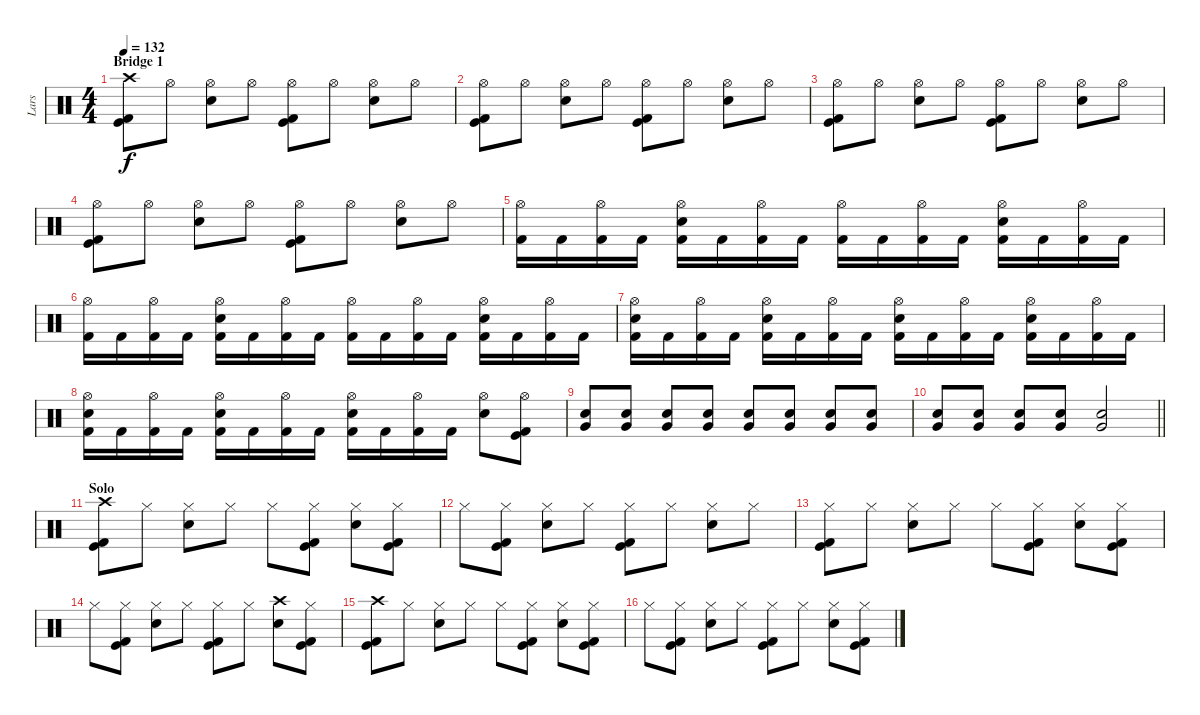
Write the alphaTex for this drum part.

\track ("Lars" "Lars") {instrument percussion}
\staff {score}
\articulation defaults
\ts (4 4)
\section ("" "Bridge 1")
\tempo 132
\clef neutral
\ks c
("Crash high (hit)" "Kick (hit)" "Kick (hit) 2").8{dy f} "Hi-Hat (open)".8 ("Hi-Hat (open)" "Electric Snare (hit)").8 "Hi-Hat (open)".8 ("Hi-Hat (open)" "Kick (hit)" "Kick (hit) 2").8 "Hi-Hat (open)".8 ("Hi-Hat (open)" "Electric Snare (hit)").8 "Hi-Hat (open)".8 |
("Hi-Hat (open)" "Kick (hit)" "Kick (hit) 2").8 "Hi-Hat (open)".8 ("Hi-Hat (open)" "Electric Snare (hit)").8 "Hi-Hat (open)".8 ("Hi-Hat (open)" "Kick (hit)" "Kick (hit) 2").8 "Hi-Hat (open)".8 ("Hi-Hat (open)" "Electric Snare (hit)").8 "Hi-Hat (open)".8 |
("Hi-Hat (open)" "Kick (hit)" "Kick (hit) 2").8 "Hi-Hat (open)".8 ("Hi-Hat (open)" "Electric Snare (hit)").8 "Hi-Hat (open)".8 ("Hi-Hat (open)" "Kick (hit)" "Kick (hit) 2").8 "Hi-Hat (open)".8 ("Hi-Hat (open)" "Electric Snare (hit)").8 "Hi-Hat (open)".8 |
("Hi-Hat (open)" "Kick (hit)" "Kick (hit) 2").8 "Hi-Hat (open)".8 ("Hi-Hat (open)" "Electric Snare (hit)").8 "Hi-Hat (open)".8 ("Hi-Hat (open)" "Kick (hit)" "Kick (hit) 2").8 "Hi-Hat (open)".8 ("Hi-Hat (open)" "Electric Snare (hit)").8 "Hi-Hat (open)".8 |
("Hi-Hat (open)" "Kick (hit) 2").16 "Kick (hit) 2".16 ("Hi-Hat (open)" "Kick (hit) 2").16 "Kick (hit) 2".16 ("Hi-Hat (open)" "Electric Snare (hit)" "Kick (hit) 2").16 "Kick (hit) 2".16 ("Hi-Hat (open)" "Kick (hit) 2").16 "Kick (hit) 2".16 ("Hi-Hat (open)" "Kick (hit) 2").16 "Kick (hit) 2".16 ("Hi-Hat (open)" "Kick (hit) 2").16 "Kick (hit) 2".16 ("Hi-Hat (open)" "Electric Snare (hit)" "Kick (hit) 2").16 "Kick (hit) 2".16 ("Hi-Hat (open)" "Kick (hit) 2").16 "Kick (hit) 2".16 |
("Hi-Hat (open)" "Kick (hit) 2").16 "Kick (hit) 2".16 ("Hi-Hat (open)" "Kick (hit) 2").16 "Kick (hit) 2".16 ("Hi-Hat (open)" "Electric Snare (hit)" "Kick (hit) 2").16 "Kick (hit) 2".16 ("Hi-Hat (open)" "Kick (hit) 2").16 "Kick (hit) 2".16 ("Hi-Hat (open)" "Kick (hit) 2").16 "Kick (hit) 2".16 ("Hi-Hat (open)" "Kick (hit) 2").16 "Kick (hit) 2".16 ("Hi-Hat (open)" "Electric Snare (hit)" "Kick (hit) 2").16 "Kick (hit) 2".16 ("Hi-Hat (open)" "Kick (hit) 2").16 "Kick (hit) 2".16 |
("Hi-Hat (open)" "Electric Snare (hit)" "Kick (hit) 2").16 "Kick (hit) 2".16 ("Hi-Hat (open)" "Kick (hit) 2").16 "Kick (hit) 2".16 ("Hi-Hat (open)" "Electric Snare (hit)" "Kick (hit) 2").16 "Kick (hit) 2".16 ("Hi-Hat (open)" "Kick (hit) 2").16 "Kick (hit) 2".16 ("Hi-Hat (open)" "Electric Snare (hit)" "Kick (hit) 2").16 "Kick (hit) 2".16 ("Hi-Hat (open)" "Kick (hit) 2").16 "Kick (hit) 2".16 ("Hi-Hat (open)" "Electric Snare (hit)" "Kick (hit) 2").16 "Kick (hit) 2".16 ("Hi-Hat (open)" "Kick (hit) 2").16 "Kick (hit) 2".16 |
("Hi-Hat (open)" "Electric Snare (hit)" "Kick (hit) 2").16 "Kick (hit) 2".16 ("Hi-Hat (open)" "Kick (hit) 2").16 "Kick (hit) 2".16 ("Hi-Hat (open)" "Electric Snare (hit)" "Kick (hit) 2").16 "Kick (hit) 2".16 ("Hi-Hat (open)" "Kick (hit) 2").16 "Kick (hit) 2".16 ("Hi-Hat (open)" "Electric Snare (hit)" "Kick (hit) 2").16 "Kick (hit) 2".16 ("Hi-Hat (open)" "Kick (hit) 2").16 "Kick (hit) 2".16 ("Hi-Hat (open)" "Electric Snare (hit)").8 ("Hi-Hat (open)" "Kick (hit)" "Kick (hit) 2").8 |
("Electric Snare (hit)" "Very Low Tom (hit)").8{volume 8} ("Electric Snare (hit)" "Very Low Tom (hit)").8{volume 16} ("Electric Snare (hit)" "Very Low Tom (hit)").8 ("Electric Snare (hit)" "Very Low Tom (hit)").8 ("Electric Snare (hit)" "Very Low Tom (hit)").8 ("Electric Snare (hit)" "Very Low Tom (hit)").8 ("Electric Snare (hit)" "Very Low Tom (hit)").8 ("Electric Snare (hit)" "Very Low Tom (hit)").8 |
\barLineRight lightlight
("Electric Snare (hit)" "Very Low Tom (hit)").8 ("Electric Snare (hit)" "Very Low Tom (hit)").8 ("Electric Snare (hit)" "Very Low Tom (hit)").8 ("Electric Snare (hit)" "Very Low Tom (hit)").8 ("Electric Snare (hit)" "Very Low Tom (hit)").2 |
\section ("" "Solo")
("Crash high (hit)" "Kick (hit)" "Kick (hit) 2").8 "Hi-Hat (closed)".8 ("Hi-Hat (closed)" "Electric Snare (hit)").8 "Hi-Hat (closed)".8 "Hi-Hat (closed)".8 ("Hi-Hat (closed)" "Kick (hit)" "Kick (hit) 2").8 ("Hi-Hat (closed)" "Electric Snare (hit)").8 ("Hi-Hat (closed)" "Kick (hit)" "Kick (hit) 2").8 |
"Hi-Hat (closed)".8 ("Hi-Hat (closed)" "Kick (hit)" "Kick (hit) 2").8 ("Hi-Hat (closed)" "Electric Snare (hit)").8 "Hi-Hat (closed)".8 ("Hi-Hat (closed)" "Kick (hit)" "Kick (hit) 2").8 "Hi-Hat (closed)".8 ("Hi-Hat (closed)" "Electric Snare (hit)").8 "Hi-Hat (closed)".8 |
("Hi-Hat (closed)" "Kick (hit)" "Kick (hit) 2").8 "Hi-Hat (closed)".8 ("Hi-Hat (closed)" "Electric Snare (hit)").8 "Hi-Hat (closed)".8 "Hi-Hat (closed)".8 ("Hi-Hat (closed)" "Kick (hit)" "Kick (hit) 2").8 ("Hi-Hat (closed)" "Electric Snare (hit)").8 ("Hi-Hat (closed)" "Kick (hit)" "Kick (hit) 2").8 |
"Hi-Hat (closed)".8 ("Hi-Hat (closed)" "Kick (hit)" "Kick (hit) 2").8 ("Hi-Hat (closed)" "Electric Snare (hit)").8 "Hi-Hat (closed)".8 ("Hi-Hat (closed)" "Kick (hit)" "Kick (hit) 2").8 "Hi-Hat (closed)".8 ("Crash high (hit)" "Electric Snare (hit)").8 ("Hi-Hat (closed)" "Kick (hit)" "Kick (hit) 2").8 |
("Crash high (hit)" "Kick (hit)" "Kick (hit) 2").8 "Hi-Hat (closed)".8 ("Hi-Hat (closed)" "Electric Snare (hit)").8 "Hi-Hat (closed)".8 "Hi-Hat (closed)".8 ("Hi-Hat (closed)" "Kick (hit)" "Kick (hit) 2").8 ("Hi-Hat (closed)" "Electric Snare (hit)").8 ("Hi-Hat (closed)" "Kick (hit)" "Kick (hit) 2").8 |
"Hi-Hat (closed)".8 ("Hi-Hat (closed)" "Kick (hit)" "Kick (hit) 2").8 ("Hi-Hat (closed)" "Electric Snare (hit)").8 "Hi-Hat (closed)".8 ("Hi-Hat (closed)" "Kick (hit)" "Kick (hit) 2").8 "Hi-Hat (closed)".8 ("Hi-Hat (closed)" "Electric Snare (hit)").8 ("Hi-Hat (closed)" "Kick (hit)" "Kick (hit) 2").8
